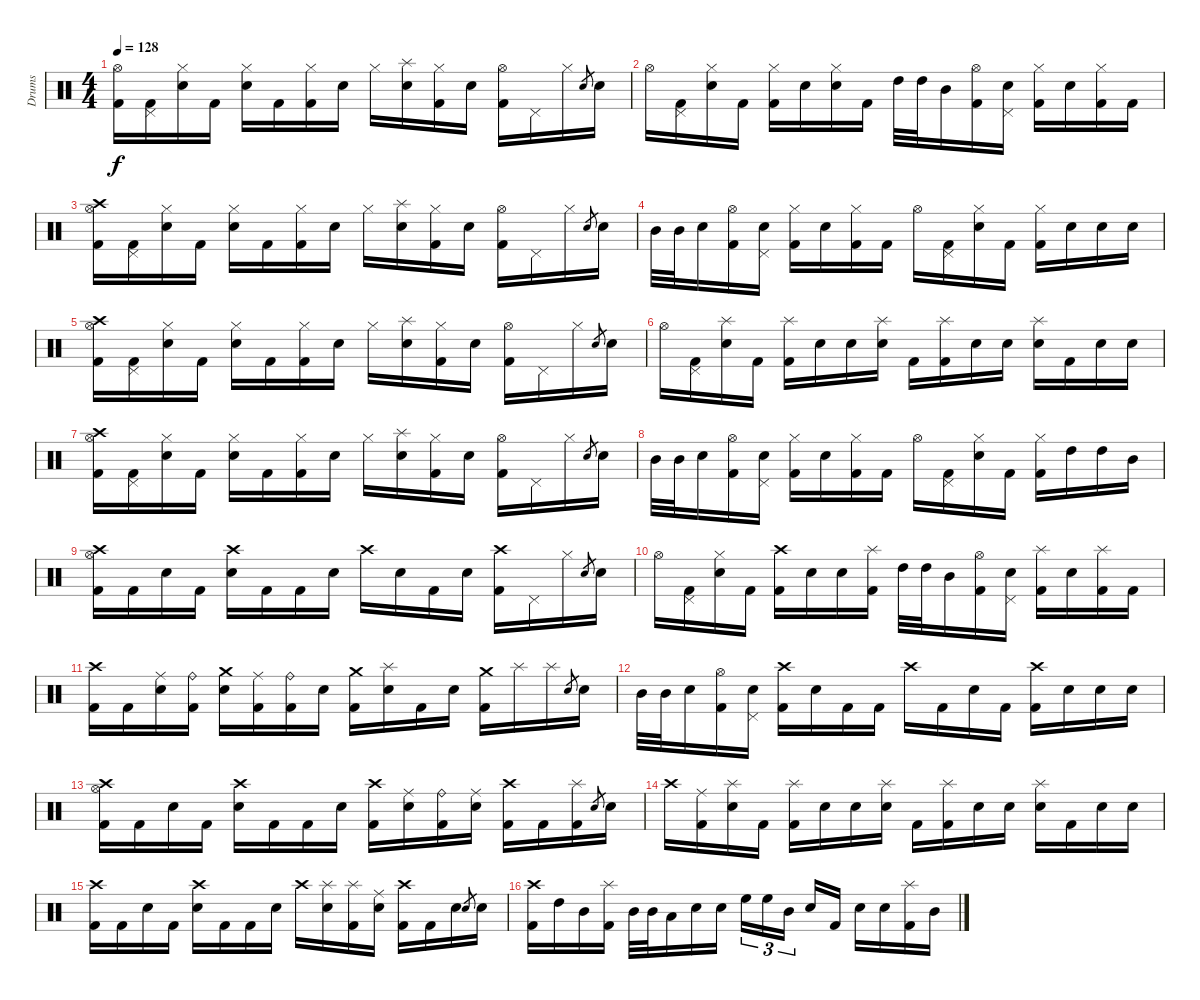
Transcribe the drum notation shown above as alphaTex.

\track ("Drums" "Drums") {instrument percussion}
\staff {score}
\articulation defaults
\ts (4 4)
\tempo 128
\clef neutral
\ks c
("Hi-Hat (open)" "Kick (hit) 2").16{dy f} ("Pedal Hi-Hat (hit)" "Kick (hit) 2").16 ("Hi-Hat (closed)" "Electric Snare (hit)").16 "Kick (hit) 2".16 ("Hi-Hat (closed)" "Electric Snare (hit)").16 "Kick (hit) 2".16 ("Hi-Hat (closed)" "Kick (hit) 2").16 "Electric Snare (hit)".16 "Hi-Hat (closed)".16 ("Splash (hit)" "Electric Snare (hit)").16 ("Hi-Hat (closed)" "Kick (hit) 2").16 "Electric Snare (hit)".16 ("Hi-Hat (open)" "Kick (hit) 2").16 "Pedal Hi-Hat (hit)".16 "Hi-Hat (closed)".16 "Electric Snare (hit)"{h}.8{gr} "Electric Snare (hit)".16 |
"Hi-Hat (open)".16 ("Pedal Hi-Hat (hit)" "Kick (hit) 2").16 ("Hi-Hat (closed)" "Electric Snare (hit)").16 "Kick (hit) 2".16 ("Hi-Hat (closed)" "Kick (hit) 2").16 "Electric Snare (hit)".16 ("Hi-Hat (closed)" "Electric Snare (hit)").16 "Kick (hit) 2".16 "High Tom (hit)".32 "High Tom (hit)".32 "Mid Tom (hit)".16 ("Hi-Hat (open)" "Kick (hit) 2").16 ("Pedal Hi-Hat (hit)" "Electric Snare (hit)").16 ("Hi-Hat (closed)" "Kick (hit) 2").16 "Electric Snare (hit)".16 ("Hi-Hat (closed)" "Kick (hit) 2").16 "Kick (hit) 2".16 |
("Crash high (hit)" "Hi-Hat (open)" "Kick (hit) 2").16 ("Pedal Hi-Hat (hit)" "Kick (hit) 2").16 ("Hi-Hat (closed)" "Electric Snare (hit)").16 "Kick (hit) 2".16 ("Hi-Hat (closed)" "Electric Snare (hit)").16 "Kick (hit) 2".16 ("Hi-Hat (closed)" "Kick (hit) 2").16 "Electric Snare (hit)".16 "Hi-Hat (closed)".16 ("Splash (hit)" "Electric Snare (hit)").16 ("Hi-Hat (closed)" "Kick (hit) 2").16 "Electric Snare (hit)".16 ("Hi-Hat (open)" "Kick (hit) 2").16 "Pedal Hi-Hat (hit)".16 "Hi-Hat (closed)".16 "Electric Snare (hit)"{h}.8{gr} "Electric Snare (hit)".16 |
"Mid Tom (hit)".32 "Mid Tom (hit)".32 "Electric Snare (hit)".16 ("Hi-Hat (open)" "Kick (hit) 2").16 ("Pedal Hi-Hat (hit)" "Electric Snare (hit)").16 ("Hi-Hat (closed)" "Kick (hit) 2").16 "Electric Snare (hit)".16 ("Hi-Hat (closed)" "Kick (hit) 2").16 "Kick (hit) 2".16 "Hi-Hat (open)".16 ("Pedal Hi-Hat (hit)" "Kick (hit) 2").16 ("Hi-Hat (closed)" "Electric Snare (hit)").16 "Kick (hit) 2".16 ("Hi-Hat (closed)" "Kick (hit) 2").16 "Electric Snare (hit)".16 "Electric Snare (hit)".16 "Electric Snare (hit)".16 |
("Crash high (hit)" "Hi-Hat (open)" "Kick (hit) 2").16 ("Pedal Hi-Hat (hit)" "Kick (hit) 2").16 ("Hi-Hat (closed)" "Electric Snare (hit)").16 "Kick (hit) 2".16 ("Hi-Hat (closed)" "Electric Snare (hit)").16 "Kick (hit) 2".16 ("Hi-Hat (closed)" "Kick (hit) 2").16 "Electric Snare (hit)".16 "Hi-Hat (closed)".16 ("Splash (hit)" "Electric Snare (hit)").16 ("Hi-Hat (closed)" "Kick (hit) 2").16 "Electric Snare (hit)".16 ("Hi-Hat (open)" "Kick (hit) 2").16 "Pedal Hi-Hat (hit)".16 "Hi-Hat (closed)".16 "Electric Snare (hit)"{h}.8{gr} "Electric Snare (hit)".16 |
"Hi-Hat (open)".16 ("Pedal Hi-Hat (hit)" "Kick (hit) 2").16 ("Splash (hit)" "Electric Snare (hit)").16 "Kick (hit) 2".16 ("Splash (hit)" "Kick (hit) 2").16 "Electric Snare (hit)".16 "Electric Snare (hit)".16 ("Splash (hit)" "Electric Snare (hit)").16 "Kick (hit) 2".16 ("Splash (hit)" "Kick (hit) 2").16 "Electric Snare (hit)".16 "Electric Snare (hit)".16 ("Splash (hit)" "Electric Snare (hit)").16 "Kick (hit) 2".16 "Electric Snare (hit)".16 "Electric Snare (hit)".16 |
("Crash high (hit)" "Hi-Hat (open)" "Kick (hit) 2").16 ("Pedal Hi-Hat (hit)" "Kick (hit) 2").16 ("Hi-Hat (closed)" "Electric Snare (hit)").16 "Kick (hit) 2".16 ("Hi-Hat (closed)" "Electric Snare (hit)").16 "Kick (hit) 2".16 ("Hi-Hat (closed)" "Kick (hit) 2").16 "Electric Snare (hit)".16 "Hi-Hat (closed)".16 ("Splash (hit)" "Electric Snare (hit)").16 ("Hi-Hat (closed)" "Kick (hit) 2").16 "Electric Snare (hit)".16 ("Hi-Hat (open)" "Kick (hit) 2").16 "Pedal Hi-Hat (hit)".16 "Hi-Hat (closed)".16 "Electric Snare (hit)"{h}.8{gr} "Electric Snare (hit)".16 |
"Mid Tom (hit)".32 "Mid Tom (hit)".32 "Electric Snare (hit)".16 ("Hi-Hat (open)" "Kick (hit) 2").16 ("Pedal Hi-Hat (hit)" "Electric Snare (hit)").16 ("Hi-Hat (closed)" "Kick (hit) 2").16 "Electric Snare (hit)".16 ("Hi-Hat (closed)" "Kick (hit) 2").16 "Kick (hit) 2".16 "Hi-Hat (open)".16 ("Pedal Hi-Hat (hit)" "Kick (hit) 2").16 ("Hi-Hat (closed)" "Electric Snare (hit)").16 "Kick (hit) 2".16 ("Hi-Hat (closed)" "Kick (hit) 2").16 "High Tom (hit)".16 "High Tom (hit)".16 "Mid Tom (hit)".16 |
("Crash high (hit)" "Hi-Hat (open)" "Kick (hit) 2").16{volume 12} "Kick (hit) 2".16 "Electric Snare (hit)".16 "Kick (hit) 2".16 ("Crash high (hit)" "Electric Snare (hit)").16 "Kick (hit) 2".16 "Kick (hit) 2".16 "Electric Snare (hit)".16 "Crash high (hit)".16 "Electric Snare (hit)".16 "Kick (hit) 2".16 "Electric Snare (hit)".16 ("Crash high (hit)" "Kick (hit) 2").16 "Pedal Hi-Hat (hit)".16 "Hi-Hat (closed)".16 "Electric Snare (hit)"{h}.8{gr} "Electric Snare (hit)".16 |
"Hi-Hat (open)".16 ("Pedal Hi-Hat (hit)" "Kick (hit) 2").16 ("Hi-Hat (closed)" "Electric Snare (hit)").16 "Kick (hit) 2".16 ("Crash high (hit)" "Kick (hit) 2").16 "Electric Snare (hit)".16 "Electric Snare (hit)".16 ("Splash (hit)" "Kick (hit) 2").16 "High Tom (hit)".32 "High Tom (hit)".32 "Mid Tom (hit)".16 ("Hi-Hat (open)" "Kick (hit) 2").16 ("Pedal Hi-Hat (hit)" "Electric Snare (hit)").16 ("Splash (hit)" "Kick (hit) 2").16 "Electric Snare (hit)".16 ("Splash (hit)" "Kick (hit) 2").16 "Kick (hit) 2".16 |
("Crash high (hit)" "Kick (hit) 2").16 "Kick (hit) 2".16 ("Ride (middle)" "Electric Snare (hit)").16 ("Ride (bell)" "Kick (hit) 2").16 ("Crash medium (hit)" "Electric Snare (hit)").16 ("Ride (middle)" "Kick (hit) 2").16 ("Ride (bell)" "Kick (hit) 2").16 "Electric Snare (hit)".16 ("Crash medium (hit)" "Kick (hit) 2").16 ("Splash (hit)" "Electric Snare (hit)").16 "Kick (hit) 2".16 "Electric Snare (hit)".16 ("Crash medium (hit)" "Kick (hit) 2").16 "Splash (hit)".16 "Splash (hit)".16 "Electric Snare (hit)"{h}.8{gr} "Electric Snare (hit)".16 |
"Mid Tom (hit)".32 "Mid Tom (hit)".32 "Electric Snare (hit)".16 ("Hi-Hat (open)" "Kick (hit) 2").16 ("Pedal Hi-Hat (hit)" "Electric Snare (hit)").16 ("Crash high (hit)" "Kick (hit) 2").16 "Electric Snare (hit)".16 "Kick (hit) 2".16 "Kick (hit) 2".16 "Crash high (hit)".16 "Kick (hit) 2".16 "Electric Snare (hit)".16 "Kick (hit) 2".16 ("Crash high (hit)" "Kick (hit) 2").16 "Electric Snare (hit)".16 "Electric Snare (hit)".16 "Electric Snare (hit)".16 |
("Crash high (hit)" "Hi-Hat (open)" "Kick (hit) 2").16 "Kick (hit) 2".16 "Electric Snare (hit)".16 "Kick (hit) 2".16 ("Crash high (hit)" "Electric Snare (hit)").16 "Kick (hit) 2".16 "Kick (hit) 2".16 "Electric Snare (hit)".16 ("Crash high (hit)" "Kick (hit) 2").16 ("Ride (middle)" "Electric Snare (hit)").16 ("Ride (bell)" "Kick (hit) 2").16 ("Ride (middle)" "Electric Snare (hit)").16 ("Crash high (hit)" "Kick (hit) 2").16 "Kick (hit) 2".16 ("Splash (hit)" "Kick (hit) 2").16 "Electric Snare (hit)"{h}.8{gr} "Electric Snare (hit)".16 |
"Crash high (hit)".16 ("Ride (middle)" "Kick (hit) 2").16 ("Splash (hit)" "Electric Snare (hit)").16 "Kick (hit) 2".16 ("Splash (hit)" "Kick (hit) 2").16 "Electric Snare (hit)".16 "Electric Snare (hit)".16 ("Splash (hit)" "Electric Snare (hit)").16 "Kick (hit) 2".16 ("Splash (hit)" "Kick (hit) 2").16 "Electric Snare (hit)".16 "Electric Snare (hit)".16 ("Splash (hit)" "Electric Snare (hit)").16 "Kick (hit) 2".16 "Electric Snare (hit)".16 "Electric Snare (hit)".16 |
("Crash high (hit)" "Kick (hit) 2").16 "Kick (hit) 2".16 "Electric Snare (hit)".16 "Kick (hit) 2".16 ("Crash high (hit)" "Electric Snare (hit)").16 "Kick (hit) 2".16 "Kick (hit) 2".16 "Electric Snare (hit)".16 "Crash high (hit)".16 ("Splash (hit)" "Electric Snare (hit)").16 ("Splash (hit)" "Kick (hit) 2").16 ("Ride (middle)" "Electric Snare (hit)").16 ("Crash high (hit)" "Kick (hit) 2").16 "Kick (hit) 2".16 "Electric Snare (hit)".16 "Electric Snare (hit)"{h}.8{gr} "Electric Snare (hit)".16 |
("Crash high (hit)" "Kick (hit) 2").16 "High Tom (hit)".16 "Mid Tom (hit)".16 ("Splash (hit)" "Kick (hit) 2").16 "Mid Tom (hit)".32 "Mid Tom (hit)".32 "Low Tom (hit)".16 "Electric Snare (hit)".16 "Electric Snare (hit)".16 "High Floor Tom (hit)".16{tu (3 2)} "High Floor Tom (hit)".16{tu (3 2)} "Mid Tom (hit)".16{tu (3 2)} "Electric Snare (hit)".16 "Kick (hit) 2".16 "Electric Snare (hit)".16 "Electric Snare (hit)".16 ("Splash (hit)" "Kick (hit) 2").16 "Mid Tom (hit)".16
